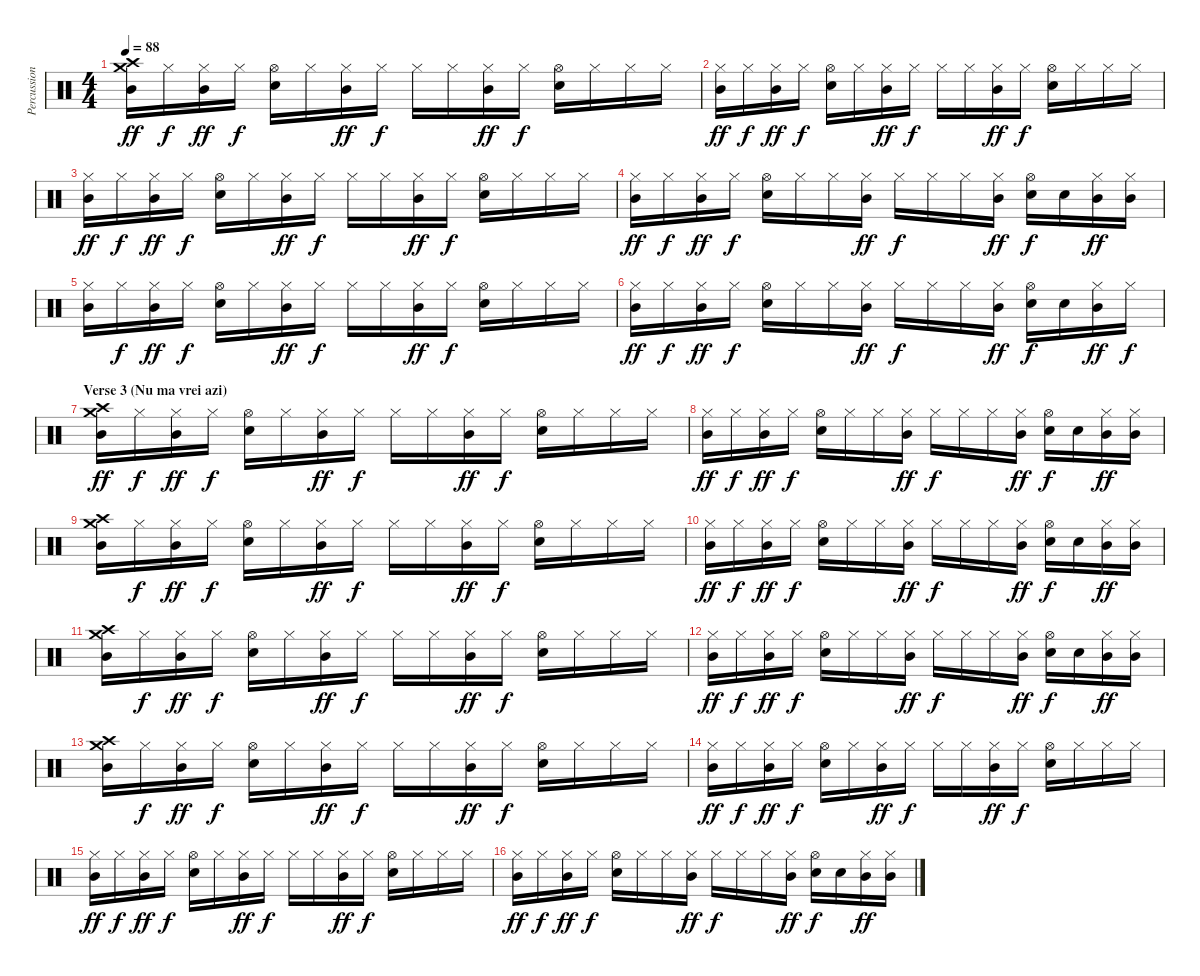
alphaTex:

\track ("Percussion" "Percussion") {instrument percussion}
\staff {score}
\articulation defaults
\ts (4 4)
\tempo 88
\clef neutral
\ks c
("Crash medium (hit)" "Crash high (hit)" "Mid Tom (hit)").16{dy ff} "Hi-Hat (closed)".16{dy f} ("Hi-Hat (closed)" "Mid Tom (hit)").16{dy ff} "Hi-Hat (closed)".16{dy f} ("Hi-Hat (open)" "Electric Snare (hit)").16 "Hi-Hat (closed)".16 ("Hi-Hat (closed)" "Mid Tom (hit)").16{dy ff} "Hi-Hat (closed)".16{dy f} "Hi-Hat (closed)".16 "Hi-Hat (closed)".16 ("Hi-Hat (closed)" "Mid Tom (hit)").16{dy ff} "Hi-Hat (closed)".16{dy f} ("Hi-Hat (open)" "Electric Snare (hit)").16 "Hi-Hat (closed)".16 "Hi-Hat (closed)".16 "Hi-Hat (closed)".16 |
("Hi-Hat (closed)" "Mid Tom (hit)").16{dy ff} "Hi-Hat (closed)".16{dy f} ("Hi-Hat (closed)" "Mid Tom (hit)").16{dy ff} "Hi-Hat (closed)".16{dy f} ("Hi-Hat (open)" "Electric Snare (hit)").16 "Hi-Hat (closed)".16 ("Hi-Hat (closed)" "Mid Tom (hit)").16{dy ff} "Hi-Hat (closed)".16{dy f} "Hi-Hat (closed)".16 "Hi-Hat (closed)".16 ("Hi-Hat (closed)" "Mid Tom (hit)").16{dy ff} "Hi-Hat (closed)".16{dy f} ("Hi-Hat (open)" "Electric Snare (hit)").16 "Hi-Hat (closed)".16 "Hi-Hat (closed)".16 "Hi-Hat (closed)".16 |
("Hi-Hat (closed)" "Mid Tom (hit)").16{dy ff} "Hi-Hat (closed)".16{dy f} ("Hi-Hat (closed)" "Mid Tom (hit)").16{dy ff} "Hi-Hat (closed)".16{dy f} ("Hi-Hat (open)" "Electric Snare (hit)").16 "Hi-Hat (closed)".16 ("Hi-Hat (closed)" "Mid Tom (hit)").16{dy ff} "Hi-Hat (closed)".16{dy f} "Hi-Hat (closed)".16 "Hi-Hat (closed)".16 ("Hi-Hat (closed)" "Mid Tom (hit)").16{dy ff} "Hi-Hat (closed)".16{dy f} ("Hi-Hat (open)" "Electric Snare (hit)").16 "Hi-Hat (closed)".16 "Hi-Hat (closed)".16 "Hi-Hat (closed)".16 |
("Hi-Hat (closed)" "Mid Tom (hit)").16{dy ff} "Hi-Hat (closed)".16{dy f} ("Hi-Hat (closed)" "Mid Tom (hit)").16{dy ff} "Hi-Hat (closed)".16{dy f} ("Hi-Hat (open)" "Electric Snare (hit)").16 "Hi-Hat (closed)".16 "Hi-Hat (closed)".16 ("Hi-Hat (closed)" "Mid Tom (hit)").16{dy ff} "Hi-Hat (closed)".16{dy f} "Hi-Hat (closed)".16 "Hi-Hat (closed)".16 ("Hi-Hat (closed)" "Mid Tom (hit)").16{dy ff} ("Hi-Hat (open)" "Electric Snare (hit)").16{dy f} "Electric Snare (hit)".16 ("Hi-Hat (closed)" "Mid Tom (hit)").16{dy ff} ("Hi-Hat (closed)" "Mid Tom (hit)").16 |
("Hi-Hat (closed)" "Mid Tom (hit)").16 "Hi-Hat (closed)".16{dy f} ("Hi-Hat (closed)" "Mid Tom (hit)").16{dy ff} "Hi-Hat (closed)".16{dy f} ("Hi-Hat (open)" "Electric Snare (hit)").16 "Hi-Hat (closed)".16 ("Hi-Hat (closed)" "Mid Tom (hit)").16{dy ff} "Hi-Hat (closed)".16{dy f} "Hi-Hat (closed)".16 "Hi-Hat (closed)".16 ("Hi-Hat (closed)" "Mid Tom (hit)").16{dy ff} "Hi-Hat (closed)".16{dy f} ("Hi-Hat (open)" "Electric Snare (hit)").16 "Hi-Hat (closed)".16 "Hi-Hat (closed)".16 "Hi-Hat (closed)".16 |
("Hi-Hat (closed)" "Mid Tom (hit)").16{dy ff} "Hi-Hat (closed)".16{dy f} ("Hi-Hat (closed)" "Mid Tom (hit)").16{dy ff} "Hi-Hat (closed)".16{dy f} ("Hi-Hat (open)" "Electric Snare (hit)").16 "Hi-Hat (closed)".16 "Hi-Hat (closed)".16 ("Hi-Hat (closed)" "Mid Tom (hit)").16{dy ff} "Hi-Hat (closed)".16{dy f} "Hi-Hat (closed)".16 "Hi-Hat (closed)".16 ("Hi-Hat (closed)" "Mid Tom (hit)").16{dy ff} ("Hi-Hat (open)" "Electric Snare (hit)").16{dy f} "Electric Snare (hit)".16 ("Hi-Hat (closed)" "Mid Tom (hit)").16{dy ff} "Hi-Hat (closed)".16{dy f} |
\section ("" "Verse 3 (Nu ma vrei azi)")
("Crash medium (hit)" "Crash high (hit)" "Mid Tom (hit)").16{dy ff} "Hi-Hat (closed)".16{dy f} ("Hi-Hat (closed)" "Mid Tom (hit)").16{dy ff} "Hi-Hat (closed)".16{dy f} ("Hi-Hat (open)" "Electric Snare (hit)").16 "Hi-Hat (closed)".16 ("Hi-Hat (closed)" "Mid Tom (hit)").16{dy ff} "Hi-Hat (closed)".16{dy f} "Hi-Hat (closed)".16 "Hi-Hat (closed)".16 ("Hi-Hat (closed)" "Mid Tom (hit)").16{dy ff} "Hi-Hat (closed)".16{dy f} ("Hi-Hat (open)" "Electric Snare (hit)").16 "Hi-Hat (closed)".16 "Hi-Hat (closed)".16 "Hi-Hat (closed)".16 |
("Hi-Hat (closed)" "Mid Tom (hit)").16{dy ff} "Hi-Hat (closed)".16{dy f} ("Hi-Hat (closed)" "Mid Tom (hit)").16{dy ff} "Hi-Hat (closed)".16{dy f} ("Hi-Hat (open)" "Electric Snare (hit)").16 "Hi-Hat (closed)".16 "Hi-Hat (closed)".16 ("Hi-Hat (closed)" "Mid Tom (hit)").16{dy ff} "Hi-Hat (closed)".16{dy f} "Hi-Hat (closed)".16 "Hi-Hat (closed)".16 ("Hi-Hat (closed)" "Mid Tom (hit)").16{dy ff} ("Hi-Hat (open)" "Electric Snare (hit)").16{dy f} "Electric Snare (hit)".16 ("Hi-Hat (closed)" "Mid Tom (hit)").16{dy ff} ("Hi-Hat (closed)" "Mid Tom (hit)").16 |
("Crash medium (hit)" "Crash high (hit)" "Mid Tom (hit)").16 "Hi-Hat (closed)".16{dy f} ("Hi-Hat (closed)" "Mid Tom (hit)").16{dy ff} "Hi-Hat (closed)".16{dy f} ("Hi-Hat (open)" "Electric Snare (hit)").16 "Hi-Hat (closed)".16 ("Hi-Hat (closed)" "Mid Tom (hit)").16{dy ff} "Hi-Hat (closed)".16{dy f} "Hi-Hat (closed)".16 "Hi-Hat (closed)".16 ("Hi-Hat (closed)" "Mid Tom (hit)").16{dy ff} "Hi-Hat (closed)".16{dy f} ("Hi-Hat (open)" "Electric Snare (hit)").16 "Hi-Hat (closed)".16 "Hi-Hat (closed)".16 "Hi-Hat (closed)".16 |
("Hi-Hat (closed)" "Mid Tom (hit)").16{dy ff} "Hi-Hat (closed)".16{dy f} ("Hi-Hat (closed)" "Mid Tom (hit)").16{dy ff} "Hi-Hat (closed)".16{dy f} ("Hi-Hat (open)" "Electric Snare (hit)").16 "Hi-Hat (closed)".16 "Hi-Hat (closed)".16 ("Hi-Hat (closed)" "Mid Tom (hit)").16{dy ff} "Hi-Hat (closed)".16{dy f} "Hi-Hat (closed)".16 "Hi-Hat (closed)".16 ("Hi-Hat (closed)" "Mid Tom (hit)").16{dy ff} ("Hi-Hat (open)" "Electric Snare (hit)").16{dy f} "Electric Snare (hit)".16 ("Hi-Hat (closed)" "Mid Tom (hit)").16{dy ff} ("Hi-Hat (closed)" "Mid Tom (hit)").16 |
("Crash medium (hit)" "Crash high (hit)" "Mid Tom (hit)").16 "Hi-Hat (closed)".16{dy f} ("Hi-Hat (closed)" "Mid Tom (hit)").16{dy ff} "Hi-Hat (closed)".16{dy f} ("Hi-Hat (open)" "Electric Snare (hit)").16 "Hi-Hat (closed)".16 ("Hi-Hat (closed)" "Mid Tom (hit)").16{dy ff} "Hi-Hat (closed)".16{dy f} "Hi-Hat (closed)".16 "Hi-Hat (closed)".16 ("Hi-Hat (closed)" "Mid Tom (hit)").16{dy ff} "Hi-Hat (closed)".16{dy f} ("Hi-Hat (open)" "Electric Snare (hit)").16 "Hi-Hat (closed)".16 "Hi-Hat (closed)".16 "Hi-Hat (closed)".16 |
("Hi-Hat (closed)" "Mid Tom (hit)").16{dy ff} "Hi-Hat (closed)".16{dy f} ("Hi-Hat (closed)" "Mid Tom (hit)").16{dy ff} "Hi-Hat (closed)".16{dy f} ("Hi-Hat (open)" "Electric Snare (hit)").16 "Hi-Hat (closed)".16 "Hi-Hat (closed)".16 ("Hi-Hat (closed)" "Mid Tom (hit)").16{dy ff} "Hi-Hat (closed)".16{dy f} "Hi-Hat (closed)".16 "Hi-Hat (closed)".16 ("Hi-Hat (closed)" "Mid Tom (hit)").16{dy ff} ("Hi-Hat (open)" "Electric Snare (hit)").16{dy f} "Electric Snare (hit)".16 ("Hi-Hat (closed)" "Mid Tom (hit)").16{dy ff} ("Hi-Hat (closed)" "Mid Tom (hit)").16 |
("Crash medium (hit)" "Crash high (hit)" "Mid Tom (hit)").16 "Hi-Hat (closed)".16{dy f} ("Hi-Hat (closed)" "Mid Tom (hit)").16{dy ff} "Hi-Hat (closed)".16{dy f} ("Hi-Hat (open)" "Electric Snare (hit)").16 "Hi-Hat (closed)".16 ("Hi-Hat (closed)" "Mid Tom (hit)").16{dy ff} "Hi-Hat (closed)".16{dy f} "Hi-Hat (closed)".16 "Hi-Hat (closed)".16 ("Hi-Hat (closed)" "Mid Tom (hit)").16{dy ff} "Hi-Hat (closed)".16{dy f} ("Hi-Hat (open)" "Electric Snare (hit)").16 "Hi-Hat (closed)".16 "Hi-Hat (closed)".16 "Hi-Hat (closed)".16 |
("Hi-Hat (closed)" "Mid Tom (hit)").16{dy ff} "Hi-Hat (closed)".16{dy f} ("Hi-Hat (closed)" "Mid Tom (hit)").16{dy ff} "Hi-Hat (closed)".16{dy f} ("Hi-Hat (open)" "Electric Snare (hit)").16 "Hi-Hat (closed)".16 ("Hi-Hat (closed)" "Mid Tom (hit)").16{dy ff} "Hi-Hat (closed)".16{dy f} "Hi-Hat (closed)".16 "Hi-Hat (closed)".16 ("Hi-Hat (closed)" "Mid Tom (hit)").16{dy ff} "Hi-Hat (closed)".16{dy f} ("Hi-Hat (open)" "Electric Snare (hit)").16 "Hi-Hat (closed)".16 "Hi-Hat (closed)".16 "Hi-Hat (closed)".16 |
("Hi-Hat (closed)" "Mid Tom (hit)").16{dy ff} "Hi-Hat (closed)".16{dy f} ("Hi-Hat (closed)" "Mid Tom (hit)").16{dy ff} "Hi-Hat (closed)".16{dy f} ("Hi-Hat (open)" "Electric Snare (hit)").16 "Hi-Hat (closed)".16 ("Hi-Hat (closed)" "Mid Tom (hit)").16{dy ff} "Hi-Hat (closed)".16{dy f} "Hi-Hat (closed)".16 "Hi-Hat (closed)".16 ("Hi-Hat (closed)" "Mid Tom (hit)").16{dy ff} "Hi-Hat (closed)".16{dy f} ("Hi-Hat (open)" "Electric Snare (hit)").16 "Hi-Hat (closed)".16 "Hi-Hat (closed)".16 "Hi-Hat (closed)".16 |
("Hi-Hat (closed)" "Mid Tom (hit)").16{dy ff} "Hi-Hat (closed)".16{dy f} ("Hi-Hat (closed)" "Mid Tom (hit)").16{dy ff} "Hi-Hat (closed)".16{dy f} ("Hi-Hat (open)" "Electric Snare (hit)").16 "Hi-Hat (closed)".16 "Hi-Hat (closed)".16 ("Hi-Hat (closed)" "Mid Tom (hit)").16{dy ff} "Hi-Hat (closed)".16{dy f} "Hi-Hat (closed)".16 "Hi-Hat (closed)".16 ("Hi-Hat (closed)" "Mid Tom (hit)").16{dy ff} ("Hi-Hat (open)" "Electric Snare (hit)").16{dy f} "Electric Snare (hit)".16 ("Hi-Hat (closed)" "Mid Tom (hit)").16{dy ff} ("Hi-Hat (closed)" "Mid Tom (hit)").16
